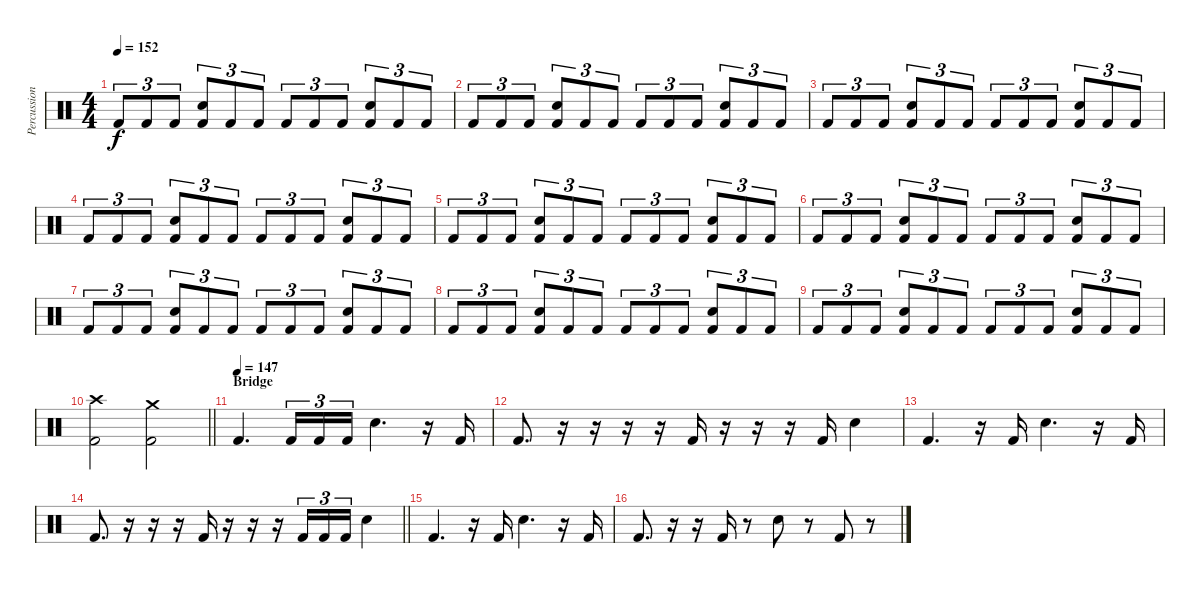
\track ("Percussion" "Percussion") {instrument percussion}
\staff {score}
\articulation defaults
\ts (4 4)
\tempo 152
\clef neutral
\ks c "Kick (hit) 2".8{tu (3 2) dy f} "Kick (hit) 2".8{tu (3 2)} "Kick (hit) 2".8{tu (3 2)}
("Kick (hit) 2" "Electric Snare (hit)").8{tu (3 2)} "Kick (hit) 2".8{tu (3 2)} "Kick (hit) 2".8{tu (3 2)} "Kick (hit) 2".8{tu (3 2)} "Kick (hit) 2".8{tu (3 2)} "Kick (hit) 2".8{tu (3 2)} ("Kick (hit) 2" "Electric Snare (hit)").8{tu (3 2)} "Kick (hit) 2".8{tu (3 2)} "Kick (hit) 2".8{tu (3 2)} |
"Kick (hit) 2".8{tu (3 2)} "Kick (hit) 2".8{tu (3 2)} "Kick (hit) 2".8{tu (3 2)} ("Kick (hit) 2" "Electric Snare (hit)").8{tu (3 2)} "Kick (hit) 2".8{tu (3 2)} "Kick (hit) 2".8{tu (3 2)} "Kick (hit) 2".8{tu (3 2)} "Kick (hit) 2".8{tu (3 2)} "Kick (hit) 2".8{tu (3 2)} ("Kick (hit) 2" "Electric Snare (hit)").8{tu (3 2)} "Kick (hit) 2".8{tu (3 2)} "Kick (hit) 2".8{tu (3 2)} |
"Kick (hit) 2".8{tu (3 2)} "Kick (hit) 2".8{tu (3 2)} "Kick (hit) 2".8{tu (3 2)} ("Kick (hit) 2" "Electric Snare (hit)").8{tu (3 2)} "Kick (hit) 2".8{tu (3 2)} "Kick (hit) 2".8{tu (3 2)} "Kick (hit) 2".8{tu (3 2)} "Kick (hit) 2".8{tu (3 2)} "Kick (hit) 2".8{tu (3 2)} ("Kick (hit) 2" "Electric Snare (hit)").8{tu (3 2)} "Kick (hit) 2".8{tu (3 2)} "Kick (hit) 2".8{tu (3 2)} |
"Kick (hit) 2".8{tu (3 2)} "Kick (hit) 2".8{tu (3 2)} "Kick (hit) 2".8{tu (3 2)} ("Kick (hit) 2" "Electric Snare (hit)").8{tu (3 2)} "Kick (hit) 2".8{tu (3 2)} "Kick (hit) 2".8{tu (3 2)} "Kick (hit) 2".8{tu (3 2)} "Kick (hit) 2".8{tu (3 2)} "Kick (hit) 2".8{tu (3 2)} ("Kick (hit) 2" "Electric Snare (hit)").8{tu (3 2)} "Kick (hit) 2".8{tu (3 2)} "Kick (hit) 2".8{tu (3 2)} |
"Kick (hit) 2".8{tu (3 2)} "Kick (hit) 2".8{tu (3 2)} "Kick (hit) 2".8{tu (3 2)} ("Kick (hit) 2" "Electric Snare (hit)").8{tu (3 2)} "Kick (hit) 2".8{tu (3 2)} "Kick (hit) 2".8{tu (3 2)} "Kick (hit) 2".8{tu (3 2)} "Kick (hit) 2".8{tu (3 2)} "Kick (hit) 2".8{tu (3 2)} ("Kick (hit) 2" "Electric Snare (hit)").8{tu (3 2)} "Kick (hit) 2".8{tu (3 2)} "Kick (hit) 2".8{tu (3 2)} |
"Kick (hit) 2".8{tu (3 2)} "Kick (hit) 2".8{tu (3 2)} "Kick (hit) 2".8{tu (3 2)} ("Kick (hit) 2" "Electric Snare (hit)").8{tu (3 2)} "Kick (hit) 2".8{tu (3 2)} "Kick (hit) 2".8{tu (3 2)} "Kick (hit) 2".8{tu (3 2)} "Kick (hit) 2".8{tu (3 2)} "Kick (hit) 2".8{tu (3 2)} ("Kick (hit) 2" "Electric Snare (hit)").8{tu (3 2)} "Kick (hit) 2".8{tu (3 2)} "Kick (hit) 2".8{tu (3 2)} |
"Kick (hit) 2".8{tu (3 2)} "Kick (hit) 2".8{tu (3 2)} "Kick (hit) 2".8{tu (3 2)} ("Kick (hit) 2" "Electric Snare (hit)").8{tu (3 2)} "Kick (hit) 2".8{tu (3 2)} "Kick (hit) 2".8{tu (3 2)} "Kick (hit) 2".8{tu (3 2)} "Kick (hit) 2".8{tu (3 2)} "Kick (hit) 2".8{tu (3 2)} ("Kick (hit) 2" "Electric Snare (hit)").8{tu (3 2)} "Kick (hit) 2".8{tu (3 2)} "Kick (hit) 2".8{tu (3 2)} |
"Kick (hit) 2".8{tu (3 2)} "Kick (hit) 2".8{tu (3 2)} "Kick (hit) 2".8{tu (3 2)} ("Kick (hit) 2" "Electric Snare (hit)").8{tu (3 2)} "Kick (hit) 2".8{tu (3 2)} "Kick (hit) 2".8{tu (3 2)} "Kick (hit) 2".8{tu (3 2)} "Kick (hit) 2".8{tu (3 2)} "Kick (hit) 2".8{tu (3 2)} ("Kick (hit) 2" "Electric Snare (hit)").8{tu (3 2)} "Kick (hit) 2".8{tu (3 2)} "Kick (hit) 2".8{tu (3 2)} |
"Kick (hit) 2".8{tu (3 2)} "Kick (hit) 2".8{tu (3 2)} "Kick (hit) 2".8{tu (3 2)} ("Kick (hit) 2" "Electric Snare (hit)").8{tu (3 2)} "Kick (hit) 2".8{tu (3 2)} "Kick (hit) 2".8{tu (3 2)} "Kick (hit) 2".8{tu (3 2)} "Kick (hit) 2".8{tu (3 2)} "Kick (hit) 2".8{tu (3 2)} ("Kick (hit) 2" "Electric Snare (hit)").8{tu (3 2)} "Kick (hit) 2".8{tu (3 2)} "Kick (hit) 2".8{tu (3 2)} |
\barLineRight lightlight
("Kick (hit) 2" "Crash high (hit)").2 ("Kick (hit) 2" "Crash medium (hit)").2 |
\section ("" "Bridge")
\tempo (147)
"Kick (hit) 2".4{d} "Kick (hit) 2".16{tu (3 2)} "Kick (hit) 2".16{tu (3 2)} "Kick (hit) 2".16{tu (3 2)} "Electric Snare (hit)".4{d} r.16 "Kick (hit) 2".16 |
"Kick (hit) 2".8{d} r.16 r.16 r.16 r.16 "Kick (hit) 2".16 r.16 r.16 r.16 "Kick (hit) 2".16 "Electric Snare (hit)".4 |
"Kick (hit) 2".4{d} r.16 "Kick (hit) 2".16 "Electric Snare (hit)".4{d} r.16 "Kick (hit) 2".16 |
\barLineRight lightlight "Kick (hit) 2".8{d}
r.16 r.16 r.16 "Kick (hit) 2".16 r.16 r.16 r.16 "Kick (hit) 2".16{tu (3 2)} "Kick (hit) 2".16{tu (3 2)} "Kick (hit) 2".16{tu (3 2)} "Electric Snare (hit)".4 |
"Kick (hit) 2".4{d} r.16 "Kick (hit) 2".16 "Electric Snare (hit)".4{d} r.16 "Kick (hit) 2".16 |
"Kick (hit) 2".8{d} r.16 r.16 "Kick (hit) 2".16 r.8 "Electric Snare (hit)".8 r.8 "Kick (hit) 2".8 r.8
